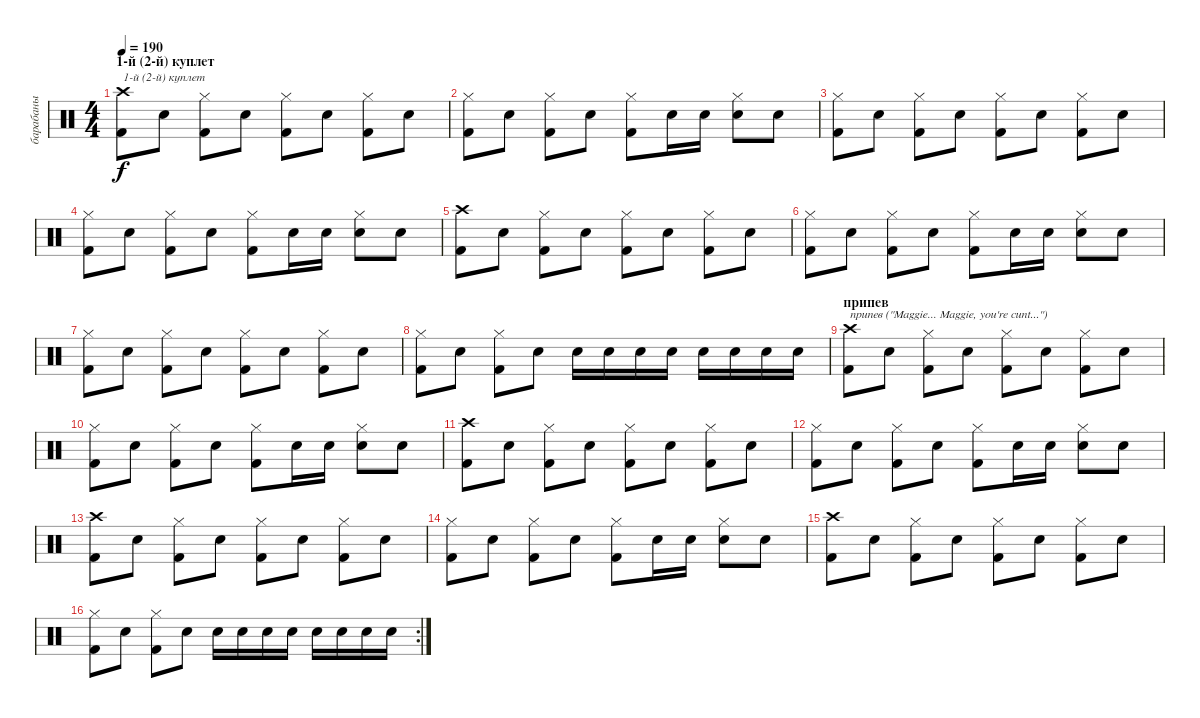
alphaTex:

\track ("барабаны" "барабаны") {instrument percussion}
\staff {score}
\articulation defaults
\ts (4 4)
\section ("" "1-й (2-й) куплет")
\tempo 190
\clef neutral
\ks c
("Crash high (hit)" "Kick (hit) 2").8{txt "1-й (2-й) куплет" dy f} "Snare (hit) 2".8 ("Hi-Hat (closed)" "Kick (hit) 2").8 "Snare (hit) 2".8 ("Hi-Hat (closed)" "Kick (hit) 2").8 "Snare (hit) 2".8 ("Hi-Hat (closed)" "Kick (hit) 2").8 "Snare (hit) 2".8 |
("Hi-Hat (closed)" "Kick (hit) 2").8 "Snare (hit) 2".8 ("Hi-Hat (closed)" "Kick (hit) 2").8 "Snare (hit) 2".8 ("Hi-Hat (closed)" "Kick (hit) 2").8 "Snare (hit) 2".16 "Snare (hit) 2".16 ("Hi-Hat (closed)" "Snare (hit) 2").8 "Snare (hit) 2".8 |
("Hi-Hat (closed)" "Kick (hit) 2").8 "Snare (hit) 2".8 ("Hi-Hat (closed)" "Kick (hit) 2").8 "Snare (hit) 2".8 ("Hi-Hat (closed)" "Kick (hit) 2").8 "Snare (hit) 2".8 ("Hi-Hat (closed)" "Kick (hit) 2").8 "Snare (hit) 2".8 |
("Hi-Hat (closed)" "Kick (hit) 2").8 "Snare (hit) 2".8 ("Hi-Hat (closed)" "Kick (hit) 2").8 "Snare (hit) 2".8 ("Hi-Hat (closed)" "Kick (hit) 2").8 "Snare (hit) 2".16 "Snare (hit) 2".16 ("Hi-Hat (closed)" "Snare (hit) 2").8 "Snare (hit) 2".8 |
("Crash high (hit)" "Kick (hit) 2").8 "Snare (hit) 2".8 ("Hi-Hat (closed)" "Kick (hit) 2").8 "Snare (hit) 2".8 ("Hi-Hat (closed)" "Kick (hit) 2").8 "Snare (hit) 2".8 ("Hi-Hat (closed)" "Kick (hit) 2").8 "Snare (hit) 2".8 |
("Hi-Hat (closed)" "Kick (hit) 2").8 "Snare (hit) 2".8 ("Hi-Hat (closed)" "Kick (hit) 2").8 "Snare (hit) 2".8 ("Hi-Hat (closed)" "Kick (hit) 2").8 "Snare (hit) 2".16 "Snare (hit) 2".16 ("Hi-Hat (closed)" "Snare (hit) 2").8 "Snare (hit) 2".8 |
("Hi-Hat (closed)" "Kick (hit) 2").8 "Snare (hit) 2".8 ("Hi-Hat (closed)" "Kick (hit) 2").8 "Snare (hit) 2".8 ("Hi-Hat (closed)" "Kick (hit) 2").8 "Snare (hit) 2".8 ("Hi-Hat (closed)" "Kick (hit) 2").8 "Snare (hit) 2".8 |
("Hi-Hat (closed)" "Kick (hit) 2").8 "Snare (hit) 2".8 ("Hi-Hat (closed)" "Kick (hit) 2").8 "Snare (hit) 2".8 "Snare (hit) 2".16 "Snare (hit) 2".16 "Snare (hit) 2".16 "Snare (hit) 2".16 "Snare (hit) 2".16 "Electric Snare (hit)".16 "Electric Snare (hit)".16 "Electric Snare (hit)".16 |
\section ("" "припев")
("Crash high (hit)" "Kick (hit) 2").8{txt "припев (\"Maggie... Maggie, you're cunt...\")"} "Snare (hit) 2".8 ("Hi-Hat (closed)" "Kick (hit) 2").8 "Snare (hit) 2".8 ("Hi-Hat (closed)" "Kick (hit) 2").8 "Snare (hit) 2".8 ("Hi-Hat (closed)" "Kick (hit) 2").8 "Snare (hit) 2".8 |
("Hi-Hat (closed)" "Kick (hit) 2").8 "Snare (hit) 2".8 ("Hi-Hat (closed)" "Kick (hit) 2").8 "Snare (hit) 2".8 ("Hi-Hat (closed)" "Kick (hit) 2").8 "Snare (hit) 2".16 "Snare (hit) 2".16 ("Hi-Hat (closed)" "Snare (hit) 2").8 "Snare (hit) 2".8 |
("Crash high (hit)" "Kick (hit) 2").8 "Snare (hit) 2".8 ("Hi-Hat (closed)" "Kick (hit) 2").8 "Snare (hit) 2".8 ("Hi-Hat (closed)" "Kick (hit) 2").8 "Snare (hit) 2".8 ("Hi-Hat (closed)" "Kick (hit) 2").8 "Snare (hit) 2".8 |
("Hi-Hat (closed)" "Kick (hit) 2").8 "Snare (hit) 2".8 ("Hi-Hat (closed)" "Kick (hit) 2").8 "Snare (hit) 2".8 ("Hi-Hat (closed)" "Kick (hit) 2").8 "Snare (hit) 2".16 "Snare (hit) 2".16 ("Hi-Hat (closed)" "Snare (hit) 2").8 "Snare (hit) 2".8 |
("Crash high (hit)" "Kick (hit) 2").8 "Snare (hit) 2".8 ("Hi-Hat (closed)" "Kick (hit) 2").8 "Snare (hit) 2".8 ("Hi-Hat (closed)" "Kick (hit) 2").8 "Snare (hit) 2".8 ("Hi-Hat (closed)" "Kick (hit) 2").8 "Snare (hit) 2".8 |
("Hi-Hat (closed)" "Kick (hit) 2").8 "Snare (hit) 2".8 ("Hi-Hat (closed)" "Kick (hit) 2").8 "Snare (hit) 2".8 ("Hi-Hat (closed)" "Kick (hit) 2").8 "Snare (hit) 2".16 "Snare (hit) 2".16 ("Hi-Hat (closed)" "Snare (hit) 2").8 "Snare (hit) 2".8 |
("Crash high (hit)" "Kick (hit) 2").8 "Snare (hit) 2".8 ("Hi-Hat (closed)" "Kick (hit) 2").8 "Snare (hit) 2".8 ("Hi-Hat (closed)" "Kick (hit) 2").8 "Snare (hit) 2".8 ("Hi-Hat (closed)" "Kick (hit) 2").8 "Snare (hit) 2".8 |
\rc 2
("Hi-Hat (closed)" "Kick (hit) 2").8 "Snare (hit) 2".8 ("Hi-Hat (closed)" "Kick (hit) 2").8 "Snare (hit) 2".8 "Snare (hit) 2".16 "Snare (hit) 2".16 "Snare (hit) 2".16 "Snare (hit) 2".16 "Snare (hit) 2".16 "Electric Snare (hit)".16 "Electric Snare (hit)".16 "Electric Snare (hit)".16
